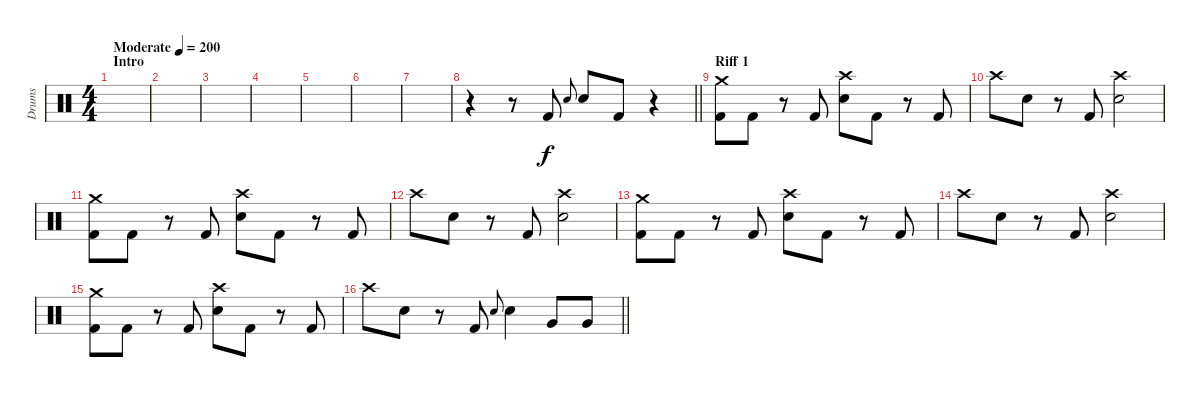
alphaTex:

\track ("Drums" "Drums") {instrument percussion}
\staff {score}
\articulation defaults
\ts (4 4)
\section ("" "Intro")
\tempo (200 "Moderate")
\clef neutral
\ks c
|
|
|
|
|
|
|
\barLineRight lightlight
r.4 r.8 "Kick (hit) 2".8 "Electric Snare (hit)".8{gr onbeat} "Electric Snare (hit)".8 "Kick (hit) 2".8 r.4 |
\section ("" "Riff 1")
("Crash medium (hit)" "Kick (hit) 2").8 "Kick (hit) 2".8 r.8 "Kick (hit) 2".8 ("Crash high (hit)" "Electric Snare (hit)").8 "Kick (hit) 2".8 r.8 "Kick (hit) 2".8 |
"Crash high (hit)".8 "Electric Snare (hit)".8 r.8 "Kick (hit) 2".8 ("Crash high (hit)" "Electric Snare (hit)").2 |
("Crash medium (hit)" "Kick (hit) 2").8 "Kick (hit) 2".8 r.8 "Kick (hit) 2".8 ("Crash high (hit)" "Electric Snare (hit)").8 "Kick (hit) 2".8 r.8 "Kick (hit) 2".8 |
"Crash high (hit)".8 "Electric Snare (hit)".8 r.8 "Kick (hit) 2".8 ("Crash high (hit)" "Electric Snare (hit)").2 |
("Crash medium (hit)" "Kick (hit) 2").8 "Kick (hit) 2".8 r.8 "Kick (hit) 2".8 ("Crash high (hit)" "Electric Snare (hit)").8 "Kick (hit) 2".8 r.8 "Kick (hit) 2".8 |
"Crash high (hit)".8 "Electric Snare (hit)".8 r.8 "Kick (hit) 2".8 ("Crash high (hit)" "Electric Snare (hit)").2 |
("Crash medium (hit)" "Kick (hit) 2").8 "Kick (hit) 2".8 r.8 "Kick (hit) 2".8 ("Crash high (hit)" "Electric Snare (hit)").8 "Kick (hit) 2".8 r.8 "Kick (hit) 2".8 |
\barLineRight lightlight "Crash high (hit)".8 "Electric Snare (hit)".8
r.8 "Kick (hit) 2".8 "Electric Snare (hit)".8{gr onbeat} "Electric Snare (hit)".4 "Very Low Tom (hit)".8 "Very Low Tom (hit)".8
